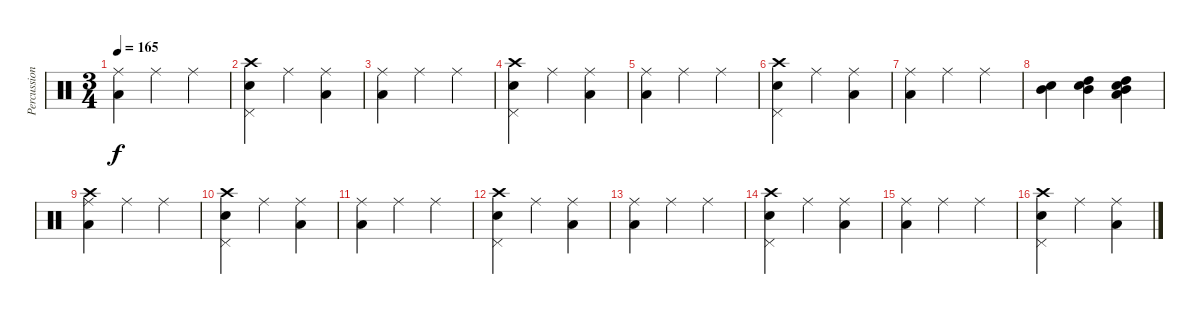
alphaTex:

\track ("Percussions" "Percussion") {instrument percussion}
\staff {score}
\articulation defaults
\ts (3 4)
\tempo 165
\clef neutral
\ks c
("Ride (middle)" "Low Floor Tom (hit)").4{dy f} "Ride (middle)".4 "Ride (middle)".4 |
("Crash high (hit)" "Snare (hit) 2" "Pedal Hi-Hat (hit)").4 "Ride (middle)".4 ("Ride (middle)" "Low Floor Tom (hit)").4 |
("Ride (middle)" "Low Floor Tom (hit)").4 "Ride (middle)".4 "Ride (middle)".4 |
("Crash high (hit)" "Snare (hit) 2" "Pedal Hi-Hat (hit)").4 "Ride (middle)".4 ("Ride (middle)" "Low Floor Tom (hit)").4 |
("Ride (middle)" "Low Floor Tom (hit)").4 "Ride (middle)".4 "Ride (middle)".4 |
("Crash high (hit)" "Snare (hit) 2" "Pedal Hi-Hat (hit)").4 "Ride (middle)".4 ("Ride (middle)" "Low Floor Tom (hit)").4 |
("Ride (middle)" "Low Floor Tom (hit)").4 "Ride (middle)".4 "Ride (middle)".4 |
("Mid Tom (hit)" "Snare (hit) 2").4 ("High Tom (hit)" "Mid Tom (hit)" "Snare (hit) 2").4 ("High Tom (hit)" "Mid Tom (hit)" "Snare (hit) 2" "Low Floor Tom (hit)").4 |
("Crash high (hit)" "Ride (middle)" "Low Floor Tom (hit)").4 "Ride (middle)".4 "Ride (middle)".4 |
("Crash high (hit)" "Snare (hit) 2" "Pedal Hi-Hat (hit)").4 "Ride (middle)".4 ("Ride (middle)" "Low Floor Tom (hit)").4 |
("Ride (middle)" "Low Floor Tom (hit)").4 "Ride (middle)".4 "Ride (middle)".4 |
("Crash high (hit)" "Snare (hit) 2" "Pedal Hi-Hat (hit)").4 "Ride (middle)".4 ("Ride (middle)" "Low Floor Tom (hit)").4 |
("Ride (middle)" "Low Floor Tom (hit)").4 "Ride (middle)".4 "Ride (middle)".4 |
("Crash high (hit)" "Snare (hit) 2" "Pedal Hi-Hat (hit)").4 "Ride (middle)".4 ("Ride (middle)" "Low Floor Tom (hit)").4 |
("Ride (middle)" "Low Floor Tom (hit)").4 "Ride (middle)".4 "Ride (middle)".4 |
("Crash high (hit)" "Snare (hit) 2" "Pedal Hi-Hat (hit)").4 "Ride (middle)".4 ("Ride (middle)" "Low Floor Tom (hit)").4
